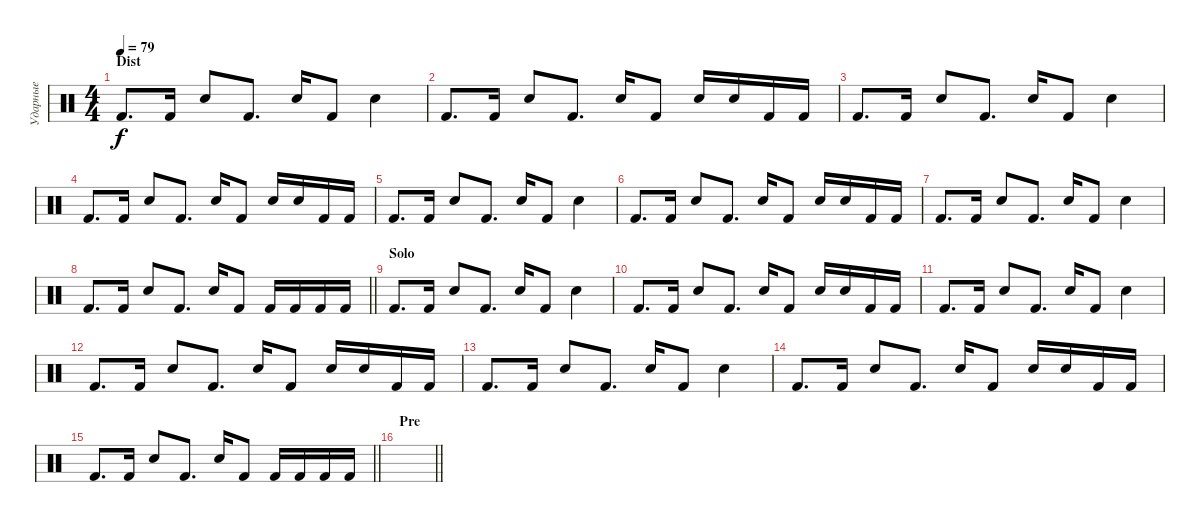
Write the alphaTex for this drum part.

\track ("Ударные" "Ударные") {instrument percussion}
\staff {score}
\articulation defaults
\ts (4 4)
\section ("" "Dist")
\tempo 79
\clef neutral
\ks c "Kick (hit) 2".8{d dy f} "Kick (hit) 2".16 "Snare (hit) 2".8 "Kick (hit) 2".8{d} "Snare (hit) 2".16 "Kick (hit) 2".8 "Snare (hit) 2".4
|
"Kick (hit) 2".8{d} "Kick (hit) 2".16 "Snare (hit) 2".8 "Kick (hit) 2".8{d} "Snare (hit) 2".16 "Kick (hit) 2".8 "Snare (hit) 2".16 "Snare (hit) 2".16 "Kick (hit) 2".16 "Kick (hit) 2".16 |
"Kick (hit) 2".8{d} "Kick (hit) 2".16 "Snare (hit) 2".8 "Kick (hit) 2".8{d} "Snare (hit) 2".16 "Kick (hit) 2".8 "Snare (hit) 2".4 |
"Kick (hit) 2".8{d} "Kick (hit) 2".16 "Snare (hit) 2".8 "Kick (hit) 2".8{d} "Snare (hit) 2".16 "Kick (hit) 2".8 "Snare (hit) 2".16 "Snare (hit) 2".16 "Kick (hit) 2".16 "Kick (hit) 2".16 |
"Kick (hit) 2".8{d} "Kick (hit) 2".16 "Snare (hit) 2".8 "Kick (hit) 2".8{d} "Snare (hit) 2".16 "Kick (hit) 2".8 "Snare (hit) 2".4 |
"Kick (hit) 2".8{d} "Kick (hit) 2".16 "Snare (hit) 2".8 "Kick (hit) 2".8{d} "Snare (hit) 2".16 "Kick (hit) 2".8 "Snare (hit) 2".16 "Snare (hit) 2".16 "Kick (hit) 2".16 "Kick (hit) 2".16 |
"Kick (hit) 2".8{d} "Kick (hit) 2".16 "Snare (hit) 2".8 "Kick (hit) 2".8{d} "Snare (hit) 2".16 "Kick (hit) 2".8 "Snare (hit) 2".4 |
\barLineRight lightlight "Kick (hit) 2".8{d} "Kick (hit) 2".16 "Snare (hit) 2".8 "Kick (hit) 2".8{d} "Snare (hit) 2".16 "Kick (hit) 2".8 "Kick (hit) 2".16 "Kick (hit) 2".16 "Kick (hit) 2".16 "Kick (hit) 2".16
|
\section ("" "Solo")
"Kick (hit) 2".8{d} "Kick (hit) 2".16 "Snare (hit) 2".8 "Kick (hit) 2".8{d} "Snare (hit) 2".16 "Kick (hit) 2".8 "Snare (hit) 2".4 |
"Kick (hit) 2".8{d} "Kick (hit) 2".16 "Snare (hit) 2".8 "Kick (hit) 2".8{d} "Snare (hit) 2".16 "Kick (hit) 2".8 "Snare (hit) 2".16 "Snare (hit) 2".16 "Kick (hit) 2".16 "Kick (hit) 2".16 |
"Kick (hit) 2".8{d} "Kick (hit) 2".16 "Snare (hit) 2".8 "Kick (hit) 2".8{d} "Snare (hit) 2".16 "Kick (hit) 2".8 "Snare (hit) 2".4 |
"Kick (hit) 2".8{d} "Kick (hit) 2".16 "Snare (hit) 2".8 "Kick (hit) 2".8{d} "Snare (hit) 2".16 "Kick (hit) 2".8 "Snare (hit) 2".16 "Snare (hit) 2".16 "Kick (hit) 2".16 "Kick (hit) 2".16 |
"Kick (hit) 2".8{d} "Kick (hit) 2".16 "Snare (hit) 2".8 "Kick (hit) 2".8{d} "Snare (hit) 2".16 "Kick (hit) 2".8 "Snare (hit) 2".4 |
"Kick (hit) 2".8{d} "Kick (hit) 2".16 "Snare (hit) 2".8 "Kick (hit) 2".8{d} "Snare (hit) 2".16 "Kick (hit) 2".8 "Snare (hit) 2".16 "Snare (hit) 2".16 "Kick (hit) 2".16 "Kick (hit) 2".16 |
\barLineRight lightlight "Kick (hit) 2".8{d} "Kick (hit) 2".16 "Snare (hit) 2".8 "Kick (hit) 2".8{d} "Snare (hit) 2".16 "Kick (hit) 2".8 "Kick (hit) 2".16 "Kick (hit) 2".16 "Kick (hit) 2".16 "Kick (hit) 2".16
|
\section ("" "Pre")
\barLineRight lightlight
